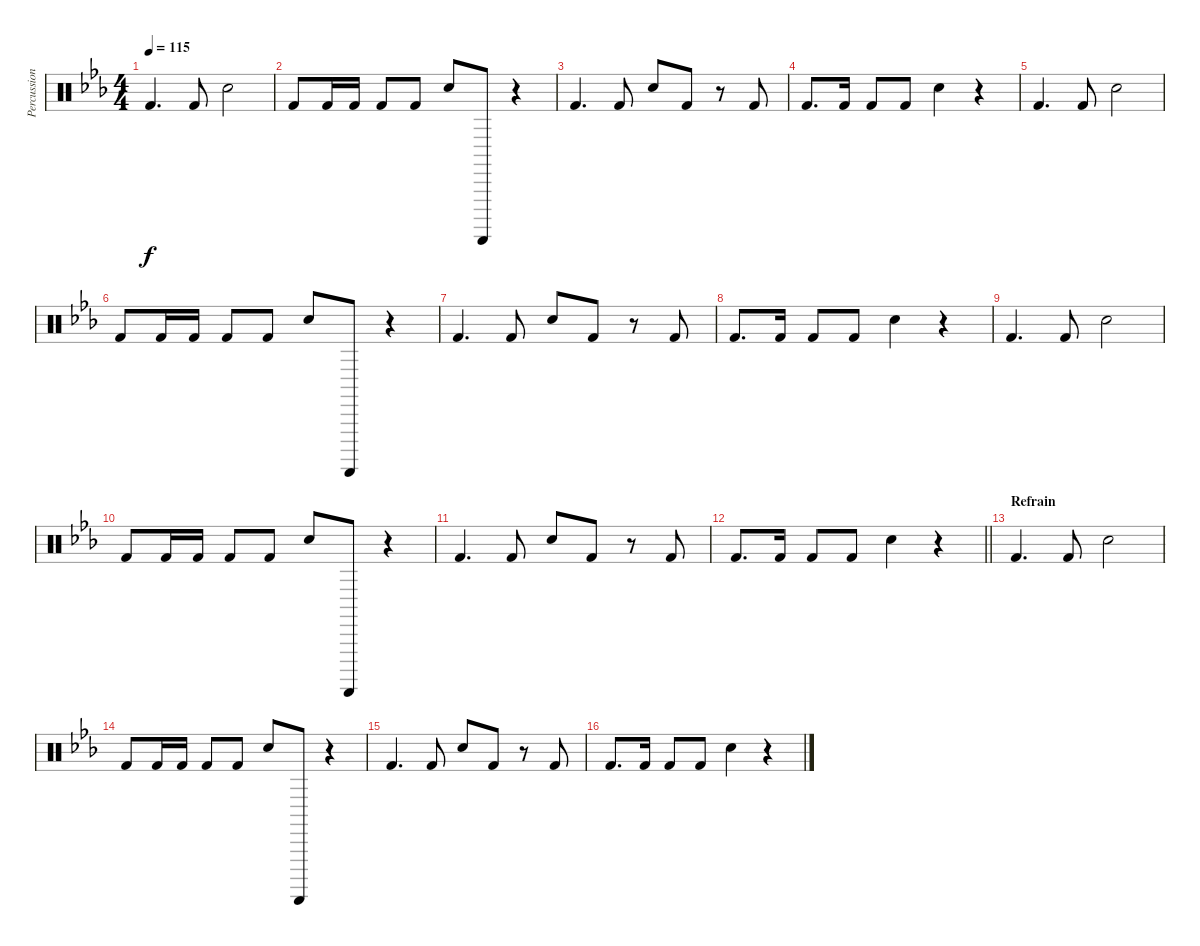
\track ("Percussions" "Percussion") {instrument percussion}
\staff {score}
\articulation defaults
\ts (4 4)
\tempo 115
\clef neutral
\ks eb "Kick (hit) 2".4{d dy f} "Kick (hit) 2".8 "Hand Clap (hit)".2
|
"Kick (hit) 2".8 "Kick (hit) 2".16 "Kick (hit) 2".16 "Kick (hit) 2".8 "Kick (hit) 2".8 "Hand Clap (hit)".8 "Guiro (scrap-return)".8 r.4 |
"Kick (hit) 2".4{d} "Kick (hit) 2".8 "Hand Clap (hit)".8 "Kick (hit) 2".8 r.8 "Kick (hit) 2".8 |
"Kick (hit) 2".8{d} "Kick (hit) 2".16 "Kick (hit) 2".8 "Kick (hit) 2".8 "Hand Clap (hit)".4 r.4 |
"Kick (hit) 2".4{d} "Kick (hit) 2".8 "Hand Clap (hit)".2 |
"Kick (hit) 2".8 "Kick (hit) 2".16 "Kick (hit) 2".16 "Kick (hit) 2".8 "Kick (hit) 2".8 "Hand Clap (hit)".8 "Guiro (scrap-return)".8 r.4 |
"Kick (hit) 2".4{d} "Kick (hit) 2".8 "Hand Clap (hit)".8 "Kick (hit) 2".8 r.8 "Kick (hit) 2".8 |
"Kick (hit) 2".8{d} "Kick (hit) 2".16 "Kick (hit) 2".8 "Kick (hit) 2".8 "Hand Clap (hit)".4 r.4 |
"Kick (hit) 2".4{d} "Kick (hit) 2".8 "Hand Clap (hit)".2 |
"Kick (hit) 2".8 "Kick (hit) 2".16 "Kick (hit) 2".16 "Kick (hit) 2".8 "Kick (hit) 2".8 "Hand Clap (hit)".8 "Guiro (scrap-return)".8 r.4 |
"Kick (hit) 2".4{d} "Kick (hit) 2".8 "Hand Clap (hit)".8 "Kick (hit) 2".8 r.8 "Kick (hit) 2".8 |
\barLineRight lightlight "Kick (hit) 2".8{d} "Kick (hit) 2".16 "Kick (hit) 2".8 "Kick (hit) 2".8 "Hand Clap (hit)".4
r.4 |
\section ("" "Refrain")
"Kick (hit) 2".4{d} "Kick (hit) 2".8 "Hand Clap (hit)".2 |
"Kick (hit) 2".8 "Kick (hit) 2".16 "Kick (hit) 2".16 "Kick (hit) 2".8 "Kick (hit) 2".8 "Hand Clap (hit)".8 "Guiro (scrap-return)".8 r.4 |
"Kick (hit) 2".4{d} "Kick (hit) 2".8 "Hand Clap (hit)".8 "Kick (hit) 2".8 r.8 "Kick (hit) 2".8 |
"Kick (hit) 2".8{d} "Kick (hit) 2".16 "Kick (hit) 2".8 "Kick (hit) 2".8 "Hand Clap (hit)".4 r.4
